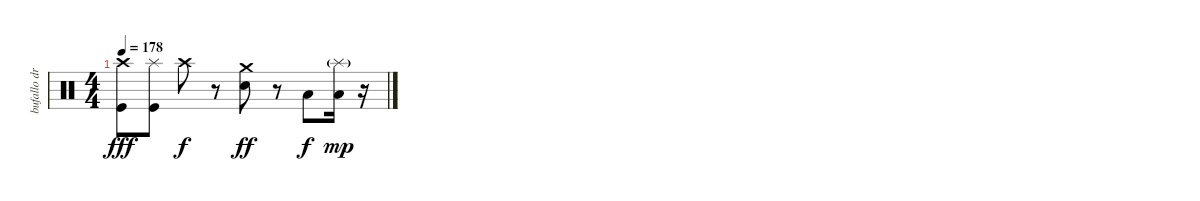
\track ("bufallo drums" "bufallo dr") {instrument percussion}
\staff {score}
\articulation defaults
\ts (4 4)
\tempo 178
\clef neutral
\ks c
("Crash high (hit)" "Kick (hit)").8{dy fff} ("Splash (hit)" "Kick (hit)").8 "Crash high (hit)".8{dy f} r.8 ("Crash medium (hit)" "Electric Snare (hit)").8{dy ff} r.8 "Low Tom (hit)".8{dy f} ("Splash (hit)"{g} "Low Floor Tom (hit)").16{dy mp} r.16
